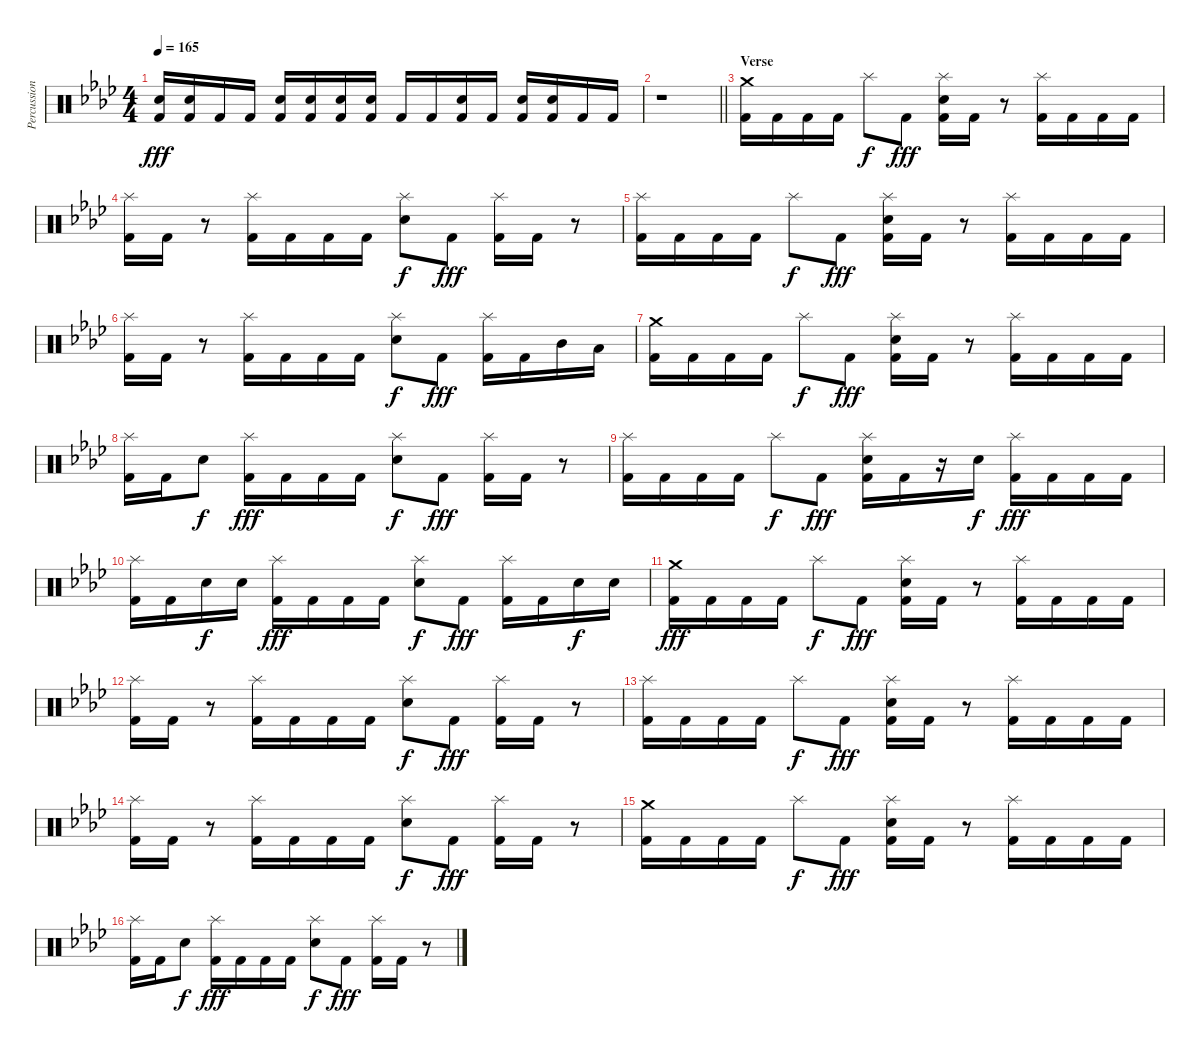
\track ("Percussion" "Percussion") {instrument percussion}
\staff {score}
\articulation defaults
\ts (4 4)
\tempo 165
\clef neutral
\ks ab
("Electric Snare (hit)" "Kick (hit) 2").16{dy fff} ("Electric Snare (hit)" "Kick (hit) 2").16 "Kick (hit) 2".16 "Kick (hit) 2".16 ("Electric Snare (hit)" "Kick (hit) 2").16 ("Electric Snare (hit)" "Kick (hit) 2").16 ("Electric Snare (hit)" "Kick (hit) 2").16 ("Electric Snare (hit)" "Kick (hit) 2").16 "Kick (hit) 2".16 "Kick (hit) 2".16 ("Electric Snare (hit)" "Kick (hit) 2").16 "Kick (hit) 2".16 ("Electric Snare (hit)" "Kick (hit) 2").16 ("Electric Snare (hit)" "Kick (hit) 2").16 "Kick (hit) 2".16 "Kick (hit) 2".16 |
\barLineRight lightlight
r.1 |
\section ("" "Verse")
("Crash medium (hit)" "Kick (hit) 2").16 "Kick (hit) 2".16 "Kick (hit) 2".16 "Kick (hit) 2".16 "Splash (hit)".8{dy f} "Kick (hit) 2".8{dy fff} ("Splash (hit)" "Electric Snare (hit)" "Kick (hit) 2").16 "Kick (hit) 2".16 r.8 ("Splash (hit)" "Kick (hit) 2").16 "Kick (hit) 2".16 "Kick (hit) 2".16 "Kick (hit) 2".16 |
("Splash (hit)" "Kick (hit) 2").16 "Kick (hit) 2".16 r.8 ("Splash (hit)" "Kick (hit) 2").16 "Kick (hit) 2".16 "Kick (hit) 2".16 "Kick (hit) 2".16 ("Splash (hit)" "Electric Snare (hit)").8{dy f} "Kick (hit) 2".8{dy fff} ("Splash (hit)" "Kick (hit) 2").16 "Kick (hit) 2".16 r.8 |
("Splash (hit)" "Kick (hit) 2").16 "Kick (hit) 2".16 "Kick (hit) 2".16 "Kick (hit) 2".16 "Splash (hit)".8{dy f} "Kick (hit) 2".8{dy fff} ("Splash (hit)" "Electric Snare (hit)" "Kick (hit) 2").16 "Kick (hit) 2".16 r.8 ("Splash (hit)" "Kick (hit) 2").16 "Kick (hit) 2".16 "Kick (hit) 2".16 "Kick (hit) 2".16 |
("Splash (hit)" "Kick (hit) 2").16 "Kick (hit) 2".16 r.8 ("Splash (hit)" "Kick (hit) 2").16 "Kick (hit) 2".16 "Kick (hit) 2".16 "Kick (hit) 2".16 ("Splash (hit)" "Electric Snare (hit)").8{dy f} "Kick (hit) 2".8{dy fff} ("Splash (hit)" "Kick (hit) 2").16 "Kick (hit) 2".16 "Mid Tom (hit)".16 "Low Tom (hit)".16 |
("Crash medium (hit)" "Kick (hit) 2").16 "Kick (hit) 2".16 "Kick (hit) 2".16 "Kick (hit) 2".16 "Splash (hit)".8{dy f} "Kick (hit) 2".8{dy fff} ("Splash (hit)" "Electric Snare (hit)" "Kick (hit) 2").16 "Kick (hit) 2".16 r.8 ("Splash (hit)" "Kick (hit) 2").16 "Kick (hit) 2".16 "Kick (hit) 2".16 "Kick (hit) 2".16 |
("Splash (hit)" "Kick (hit) 2").16 "Kick (hit) 2".16 "Electric Snare (hit)".8{dy f} ("Splash (hit)" "Kick (hit) 2").16{dy fff} "Kick (hit) 2".16 "Kick (hit) 2".16 "Kick (hit) 2".16 ("Splash (hit)" "Electric Snare (hit)").8{dy f} "Kick (hit) 2".8{dy fff} ("Splash (hit)" "Kick (hit) 2").16 "Kick (hit) 2".16 r.8 |
("Splash (hit)" "Kick (hit) 2").16 "Kick (hit) 2".16 "Kick (hit) 2".16 "Kick (hit) 2".16 "Splash (hit)".8{dy f} "Kick (hit) 2".8{dy fff} ("Splash (hit)" "Electric Snare (hit)" "Kick (hit) 2").16 "Kick (hit) 2".16 r.16 "Electric Snare (hit)".16{dy f} ("Splash (hit)" "Kick (hit) 2").16{dy fff} "Kick (hit) 2".16 "Kick (hit) 2".16 "Kick (hit) 2".16 |
("Splash (hit)" "Kick (hit) 2").16 "Kick (hit) 2".16 "Electric Snare (hit)".16{dy f} "Electric Snare (hit)".16 ("Splash (hit)" "Kick (hit) 2").16{dy fff} "Kick (hit) 2".16 "Kick (hit) 2".16 "Kick (hit) 2".16 ("Splash (hit)" "Electric Snare (hit)").8{dy f} "Kick (hit) 2".8{dy fff} ("Splash (hit)" "Kick (hit) 2").16 "Kick (hit) 2".16 "Electric Snare (hit)".16{dy f} "Electric Snare (hit)".16 |
("Crash medium (hit)" "Kick (hit) 2").16{dy fff} "Kick (hit) 2".16 "Kick (hit) 2".16 "Kick (hit) 2".16 "Splash (hit)".8{dy f} "Kick (hit) 2".8{dy fff} ("Splash (hit)" "Electric Snare (hit)" "Kick (hit) 2").16 "Kick (hit) 2".16 r.8 ("Splash (hit)" "Kick (hit) 2").16 "Kick (hit) 2".16 "Kick (hit) 2".16 "Kick (hit) 2".16 |
("Splash (hit)" "Kick (hit) 2").16 "Kick (hit) 2".16 r.8 ("Splash (hit)" "Kick (hit) 2").16 "Kick (hit) 2".16 "Kick (hit) 2".16 "Kick (hit) 2".16 ("Splash (hit)" "Electric Snare (hit)").8{dy f} "Kick (hit) 2".8{dy fff} ("Splash (hit)" "Kick (hit) 2").16 "Kick (hit) 2".16 r.8 |
("Splash (hit)" "Kick (hit) 2").16 "Kick (hit) 2".16 "Kick (hit) 2".16 "Kick (hit) 2".16 "Splash (hit)".8{dy f} "Kick (hit) 2".8{dy fff} ("Splash (hit)" "Electric Snare (hit)" "Kick (hit) 2").16 "Kick (hit) 2".16 r.8 ("Splash (hit)" "Kick (hit) 2").16 "Kick (hit) 2".16 "Kick (hit) 2".16 "Kick (hit) 2".16 |
("Splash (hit)" "Kick (hit) 2").16 "Kick (hit) 2".16 r.8 ("Splash (hit)" "Kick (hit) 2").16 "Kick (hit) 2".16 "Kick (hit) 2".16 "Kick (hit) 2".16 ("Splash (hit)" "Electric Snare (hit)").8{dy f} "Kick (hit) 2".8{dy fff} ("Splash (hit)" "Kick (hit) 2").16 "Kick (hit) 2".16 r.8 |
("Crash medium (hit)" "Kick (hit) 2").16 "Kick (hit) 2".16 "Kick (hit) 2".16 "Kick (hit) 2".16 "Splash (hit)".8{dy f} "Kick (hit) 2".8{dy fff} ("Splash (hit)" "Electric Snare (hit)" "Kick (hit) 2").16 "Kick (hit) 2".16 r.8 ("Splash (hit)" "Kick (hit) 2").16 "Kick (hit) 2".16 "Kick (hit) 2".16 "Kick (hit) 2".16 |
("Splash (hit)" "Kick (hit) 2").16 "Kick (hit) 2".16 "Electric Snare (hit)".8{dy f} ("Splash (hit)" "Kick (hit) 2").16{dy fff} "Kick (hit) 2".16 "Kick (hit) 2".16 "Kick (hit) 2".16 ("Splash (hit)" "Electric Snare (hit)").8{dy f} "Kick (hit) 2".8{dy fff} ("Splash (hit)" "Kick (hit) 2").16 "Kick (hit) 2".16 r.8
